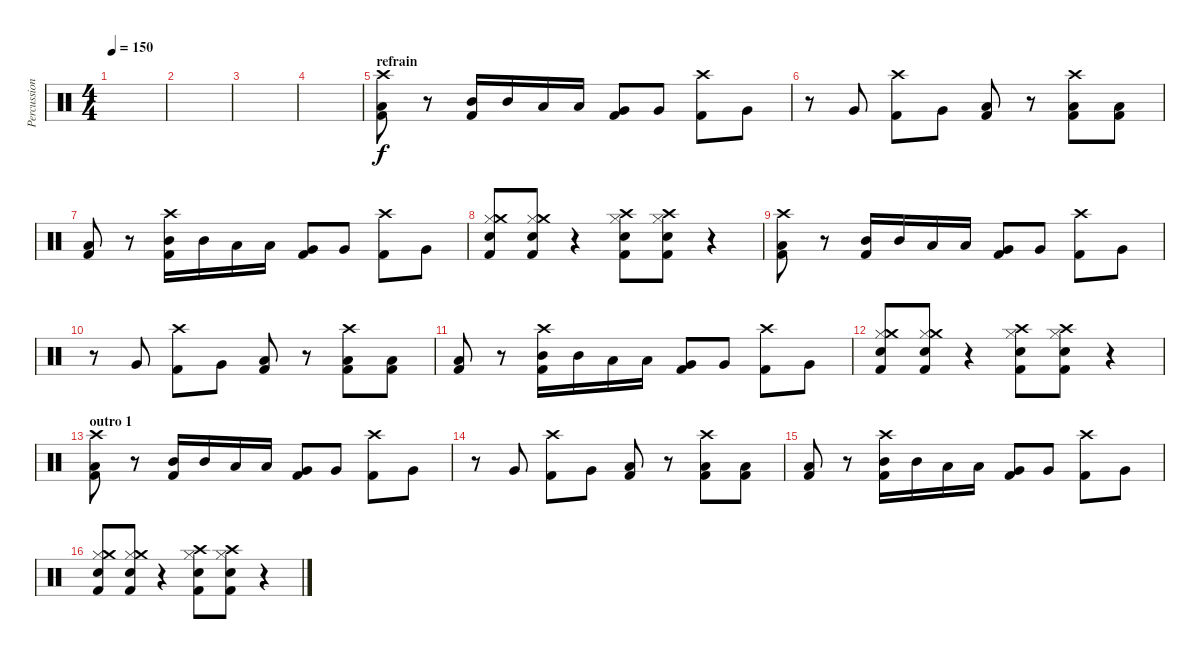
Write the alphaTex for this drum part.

\track ("Percussions" "Percussion") {instrument percussion}
\staff {score}
\articulation defaults
\ts (4 4)
\tempo 150
\clef neutral
\ks c
|
|
|
|
\section ("" "refrain")
("Crash high (hit)" "Low Floor Tom (hit)" "Kick (hit) 2").8 r.8 ("Mid Tom (hit)" "Kick (hit) 2").16 "Mid Tom (hit)".16 "Low Tom (hit)".16 "Low Tom (hit)".16 ("Very Low Tom (hit)" "Kick (hit) 2").8 "Very Low Tom (hit)".8 ("Crash high (hit)" "Kick (hit) 2").8 "Very Low Tom (hit)".8 |
r.8 "Very Low Tom (hit)".8 ("Crash high (hit)" "Kick (hit) 2").8 "Very Low Tom (hit)".8 ("Low Floor Tom (hit)" "Kick (hit) 2").8 r.8 ("Crash high (hit)" "Low Floor Tom (hit)" "Kick (hit) 2").8 ("Low Floor Tom (hit)" "Kick (hit) 2").8 |
("Low Floor Tom (hit)" "Kick (hit) 2").8 r.8 ("Crash high (hit)" "Mid Tom (hit)" "Kick (hit) 2").16 "Mid Tom (hit)".16 "Low Tom (hit)".16 "Low Tom (hit)".16 ("Very Low Tom (hit)" "Kick (hit) 2").8 "Very Low Tom (hit)".8 ("Crash high (hit)" "Kick (hit) 2").8 "Very Low Tom (hit)".8 |
("Hi-Hat (closed)" "Crash medium (hit)" "Electric Snare (hit)" "Kick (hit) 2").8 ("Hi-Hat (closed)" "Crash medium (hit)" "Electric Snare (hit)" "Kick (hit) 2").8 r.4 ("Hi-Hat (closed)" "Crash high (hit)" "Electric Snare (hit)" "Kick (hit) 2").8 ("Hi-Hat (closed)" "Crash high (hit)" "Electric Snare (hit)" "Kick (hit) 2").8 r.4 |
("Crash high (hit)" "Low Floor Tom (hit)" "Kick (hit) 2").8 r.8 ("Mid Tom (hit)" "Kick (hit) 2").16 "Mid Tom (hit)".16 "Low Tom (hit)".16 "Low Tom (hit)".16 ("Very Low Tom (hit)" "Kick (hit) 2").8 "Very Low Tom (hit)".8 ("Crash high (hit)" "Kick (hit) 2").8 "Very Low Tom (hit)".8 |
r.8 "Very Low Tom (hit)".8 ("Crash high (hit)" "Kick (hit) 2").8 "Very Low Tom (hit)".8 ("Low Floor Tom (hit)" "Kick (hit) 2").8 r.8 ("Crash high (hit)" "Low Floor Tom (hit)" "Kick (hit) 2").8 ("Low Floor Tom (hit)" "Kick (hit) 2").8 |
("Low Floor Tom (hit)" "Kick (hit) 2").8 r.8 ("Crash high (hit)" "Mid Tom (hit)" "Kick (hit) 2").16 "Mid Tom (hit)".16 "Low Tom (hit)".16 "Low Tom (hit)".16 ("Very Low Tom (hit)" "Kick (hit) 2").8 "Very Low Tom (hit)".8 ("Crash high (hit)" "Kick (hit) 2").8 "Very Low Tom (hit)".8 |
("Hi-Hat (closed)" "Crash medium (hit)" "Electric Snare (hit)" "Kick (hit) 2").8 ("Hi-Hat (closed)" "Crash medium (hit)" "Electric Snare (hit)" "Kick (hit) 2").8 r.4 ("Hi-Hat (closed)" "Crash high (hit)" "Electric Snare (hit)" "Kick (hit) 2").8 ("Hi-Hat (closed)" "Crash high (hit)" "Electric Snare (hit)" "Kick (hit) 2").8 r.4 |
\section ("" "outro 1")
("Crash high (hit)" "Low Floor Tom (hit)" "Kick (hit) 2").8 r.8 ("Mid Tom (hit)" "Kick (hit) 2").16 "Mid Tom (hit)".16 "Low Tom (hit)".16 "Low Tom (hit)".16 ("Very Low Tom (hit)" "Kick (hit) 2").8 "Very Low Tom (hit)".8 ("Crash high (hit)" "Kick (hit) 2").8 "Very Low Tom (hit)".8 |
r.8 "Very Low Tom (hit)".8 ("Crash high (hit)" "Kick (hit) 2").8 "Very Low Tom (hit)".8 ("Low Floor Tom (hit)" "Kick (hit) 2").8 r.8 ("Crash high (hit)" "Low Floor Tom (hit)" "Kick (hit) 2").8 ("Low Floor Tom (hit)" "Kick (hit) 2").8 |
("Low Floor Tom (hit)" "Kick (hit) 2").8 r.8 ("Crash high (hit)" "Mid Tom (hit)" "Kick (hit) 2").16 "Mid Tom (hit)".16 "Low Tom (hit)".16 "Low Tom (hit)".16 ("Very Low Tom (hit)" "Kick (hit) 2").8 "Very Low Tom (hit)".8 ("Crash high (hit)" "Kick (hit) 2").8 "Very Low Tom (hit)".8 |
("Hi-Hat (closed)" "Crash medium (hit)" "Electric Snare (hit)" "Kick (hit) 2").8 ("Hi-Hat (closed)" "Crash medium (hit)" "Electric Snare (hit)" "Kick (hit) 2").8 r.4 ("Hi-Hat (closed)" "Crash high (hit)" "Electric Snare (hit)" "Kick (hit) 2").8 ("Hi-Hat (closed)" "Crash high (hit)" "Electric Snare (hit)" "Kick (hit) 2").8 r.4
